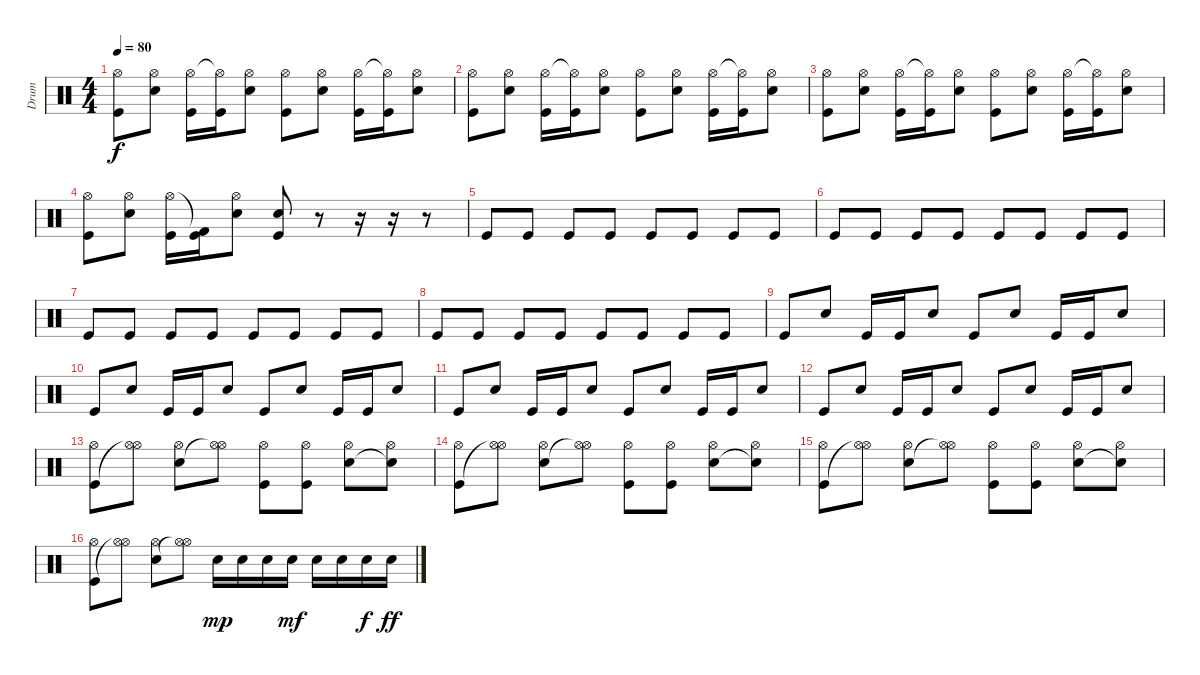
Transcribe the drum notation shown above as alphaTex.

\track ("Drum" "Drum") {instrument percussion}
\staff {score}
\articulation defaults
\ts (4 4)
\tempo 80
\clef neutral
\ks c
("Hi-Hat (open)" "Kick (hit)").8{dy f} ("Hi-Hat (open)" "Electric Snare (hit)").8 ("Hi-Hat (open)" "Kick (hit)").16 ("Hi-Hat (open)"{t} "Kick (hit)").16 ("Hi-Hat (open)" "Electric Snare (hit)").8 ("Hi-Hat (open)" "Kick (hit)").8 ("Hi-Hat (open)" "Electric Snare (hit)").8 ("Hi-Hat (open)" "Kick (hit)").16 ("Hi-Hat (open)"{t} "Kick (hit)").16 ("Hi-Hat (open)" "Electric Snare (hit)").8 |
("Hi-Hat (open)" "Kick (hit)").8 ("Hi-Hat (open)" "Electric Snare (hit)").8 ("Hi-Hat (open)" "Kick (hit)").16 ("Hi-Hat (open)"{t} "Kick (hit)").16 ("Hi-Hat (open)" "Electric Snare (hit)").8 ("Hi-Hat (open)" "Kick (hit)").8 ("Hi-Hat (open)" "Electric Snare (hit)").8 ("Hi-Hat (open)" "Kick (hit)").16 ("Hi-Hat (open)"{t} "Kick (hit)").16 ("Hi-Hat (open)" "Electric Snare (hit)").8 |
("Hi-Hat (open)" "Kick (hit)").8 ("Hi-Hat (open)" "Electric Snare (hit)").8 ("Hi-Hat (open)" "Kick (hit)").16 ("Hi-Hat (open)"{t} "Kick (hit)").16 ("Hi-Hat (open)" "Electric Snare (hit)").8 ("Hi-Hat (open)" "Kick (hit)").8 ("Hi-Hat (open)" "Electric Snare (hit)").8 ("Hi-Hat (open)" "Kick (hit)").16 ("Hi-Hat (open)"{t} "Kick (hit)").16 ("Hi-Hat (open)" "Electric Snare (hit)").8 |
("Hi-Hat (open)" "Kick (hit)").8 ("Hi-Hat (open)" "Electric Snare (hit)").8 ("Hi-Hat (open)" "Kick (hit)").16 ("Kick (hit) 2"{t} "Kick (hit)").16 ("Hi-Hat (open)" "Electric Snare (hit)").8 ("Electric Snare (hit)" "Kick (hit)").8 r.8 r.16 r.16 r.8 |
"Kick (hit)".8 "Kick (hit)".8 "Kick (hit)".8 "Kick (hit)".8 "Kick (hit)".8 "Kick (hit)".8 "Kick (hit)".8 "Kick (hit)".8 |
"Kick (hit)".8 "Kick (hit)".8 "Kick (hit)".8 "Kick (hit)".8 "Kick (hit)".8 "Kick (hit)".8 "Kick (hit)".8 "Kick (hit)".8 |
"Kick (hit)".8 "Kick (hit)".8 "Kick (hit)".8 "Kick (hit)".8 "Kick (hit)".8 "Kick (hit)".8 "Kick (hit)".8 "Kick (hit)".8 |
"Kick (hit)".8 "Kick (hit)".8 "Kick (hit)".8 "Kick (hit)".8 "Kick (hit)".8 "Kick (hit)".8 "Kick (hit)".8 "Kick (hit)".8 |
"Kick (hit)".8 "Electric Snare (hit)".8 "Kick (hit)".16 "Kick (hit)".16 "Electric Snare (hit)".8 "Kick (hit)".8 "Electric Snare (hit)".8 "Kick (hit)".16 "Kick (hit)".16 "Electric Snare (hit)".8 |
"Kick (hit)".8 "Electric Snare (hit)".8 "Kick (hit)".16 "Kick (hit)".16 "Electric Snare (hit)".8 "Kick (hit)".8 "Electric Snare (hit)".8 "Kick (hit)".16 "Kick (hit)".16 "Electric Snare (hit)".8 |
"Kick (hit)".8 "Electric Snare (hit)".8 "Kick (hit)".16 "Kick (hit)".16 "Electric Snare (hit)".8 "Kick (hit)".8 "Electric Snare (hit)".8 "Kick (hit)".16 "Kick (hit)".16 "Electric Snare (hit)".8 |
"Kick (hit)".8 "Electric Snare (hit)".8 "Kick (hit)".16 "Kick (hit)".16 "Electric Snare (hit)".8 "Kick (hit)".8 "Electric Snare (hit)".8 "Kick (hit)".16 "Kick (hit)".16 "Electric Snare (hit)".8 |
("Hi-Hat (open)" "Kick (hit)").8 ("Hi-Hat (open)" "Hi-Hat (open)"{t}).8 ("Electric Snare (hit)" "Hi-Hat (open)").8 ("Hi-Hat (open)"{t} "Hi-Hat (open)").8 ("Hi-Hat (open)" "Kick (hit)").8 ("Hi-Hat (open)" "Kick (hit)").8 ("Hi-Hat (open)" "Electric Snare (hit)").8 ("Hi-Hat (open)" "Electric Snare (hit)"{t}).8 |
("Hi-Hat (open)" "Kick (hit)").8 ("Hi-Hat (open)" "Hi-Hat (open)"{t}).8 ("Electric Snare (hit)" "Hi-Hat (open)").8 ("Hi-Hat (open)"{t} "Hi-Hat (open)").8 ("Hi-Hat (open)" "Kick (hit)").8 ("Hi-Hat (open)" "Kick (hit)").8 ("Hi-Hat (open)" "Electric Snare (hit)").8 ("Hi-Hat (open)" "Electric Snare (hit)"{t}).8 |
("Hi-Hat (open)" "Kick (hit)").8 ("Hi-Hat (open)" "Hi-Hat (open)"{t}).8 ("Electric Snare (hit)" "Hi-Hat (open)").8 ("Hi-Hat (open)"{t} "Hi-Hat (open)").8 ("Hi-Hat (open)" "Kick (hit)").8 ("Hi-Hat (open)" "Kick (hit)").8 ("Hi-Hat (open)" "Electric Snare (hit)").8 ("Hi-Hat (open)" "Electric Snare (hit)"{t}).8 |
("Hi-Hat (open)" "Kick (hit)").8 ("Hi-Hat (open)" "Hi-Hat (open)"{t}).8 ("Electric Snare (hit)" "Hi-Hat (open)").8 ("Hi-Hat (open)"{t} "Hi-Hat (open)").8 "Electric Snare (hit)".16{dy mp} "Electric Snare (hit)".16 "Electric Snare (hit)".16 "Electric Snare (hit)".16{dy mf} "Electric Snare (hit)".16 "Electric Snare (hit)".16 "Electric Snare (hit)".16{dy f} "Electric Snare (hit)".16{dy ff}
